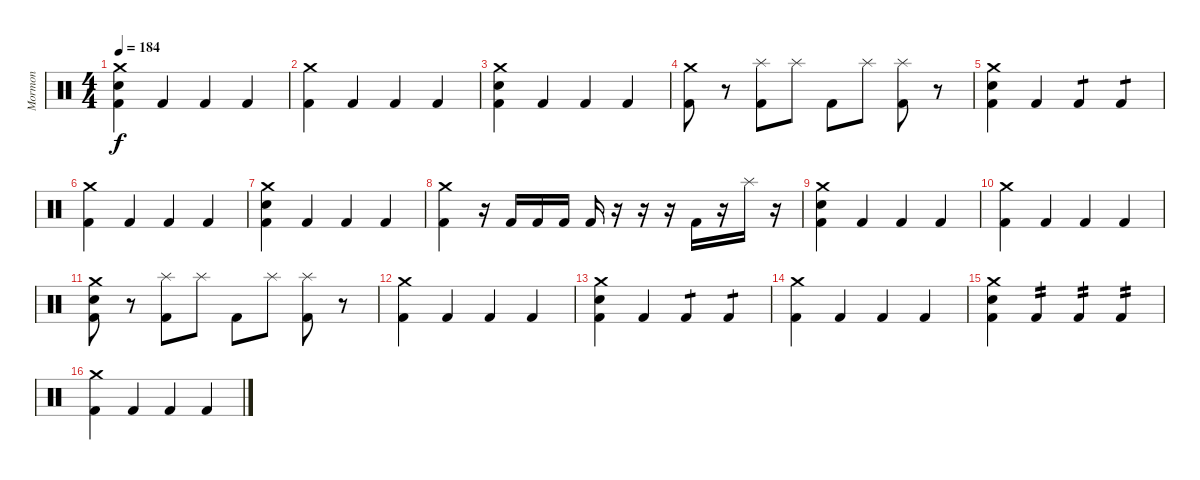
\track ("Mormon" "Mormon") {solo instrument percussion}
\staff {score}
\articulation defaults
\ts (4 4)
\tempo 184
\clef neutral
\ks c
("Crash medium (hit)" "Snare (hit) 2" "Kick (hit) 2").4{dy f} "Kick (hit) 2".4 "Kick (hit) 2".4 "Kick (hit) 2".4 |
("Crash medium (hit)" "Kick (hit) 2").4 "Kick (hit) 2".4 "Kick (hit) 2".4 "Kick (hit) 2".4 |
("Crash medium (hit)" "Snare (hit) 2" "Kick (hit) 2").4 "Kick (hit) 2".4 "Kick (hit) 2".4 "Kick (hit) 2".4 |
("Crash medium (hit)" "Kick (hit) 2").8 r.8 ("Splash (hit)" "Kick (hit) 2").8 "Splash (hit)".8 "Kick (hit) 2".8 "Splash (hit)".8 ("Splash (hit)" "Kick (hit) 2").8 r.8 |
("Crash medium (hit)" "Snare (hit) 2" "Kick (hit) 2").4 "Kick (hit) 2".4 "Kick (hit) 2".4{tp 1} "Kick (hit) 2".4{tp 1} |
("Crash medium (hit)" "Kick (hit) 2").4 "Kick (hit) 2".4 "Kick (hit) 2".4 "Kick (hit) 2".4 |
("Crash medium (hit)" "Snare (hit) 2" "Kick (hit) 2").4 "Kick (hit) 2".4 "Kick (hit) 2".4 "Kick (hit) 2".4 |
("Crash medium (hit)" "Kick (hit) 2").4 r.16 "Kick (hit) 2".16 "Kick (hit) 2".16 "Kick (hit) 2".16 "Kick (hit) 2".16 r.16 r.16 r.16 "Kick (hit) 2".16 r.16 "Splash (hit)".16 r.16 |
("Crash medium (hit)" "Snare (hit) 2" "Kick (hit) 2").4 "Kick (hit) 2".4 "Kick (hit) 2".4 "Kick (hit) 2".4 |
("Crash medium (hit)" "Kick (hit) 2").4 "Kick (hit) 2".4 "Kick (hit) 2".4 "Kick (hit) 2".4 |
("Crash medium (hit)" "Snare (hit) 2" "Kick (hit) 2").8 r.8 ("Splash (hit)" "Kick (hit) 2").8 "Splash (hit)".8 "Kick (hit) 2".8 "Splash (hit)".8 ("Splash (hit)" "Kick (hit) 2").8 r.8 |
("Crash medium (hit)" "Kick (hit) 2").4 "Kick (hit) 2".4 "Kick (hit) 2".4 "Kick (hit) 2".4 |
("Crash medium (hit)" "Snare (hit) 2" "Kick (hit) 2").4 "Kick (hit) 2".4 "Kick (hit) 2".4{tp 1} "Kick (hit) 2".4{tp 1} |
("Crash medium (hit)" "Kick (hit) 2").4 "Kick (hit) 2".4 "Kick (hit) 2".4 "Kick (hit) 2".4 |
("Crash medium (hit)" "Snare (hit) 2" "Kick (hit) 2").4 "Kick (hit) 2".4{tp 2} "Kick (hit) 2".4{tp 2} "Kick (hit) 2".4{tp 2} |
("Crash medium (hit)" "Kick (hit) 2").4 "Kick (hit) 2".4 "Kick (hit) 2".4 "Kick (hit) 2".4
